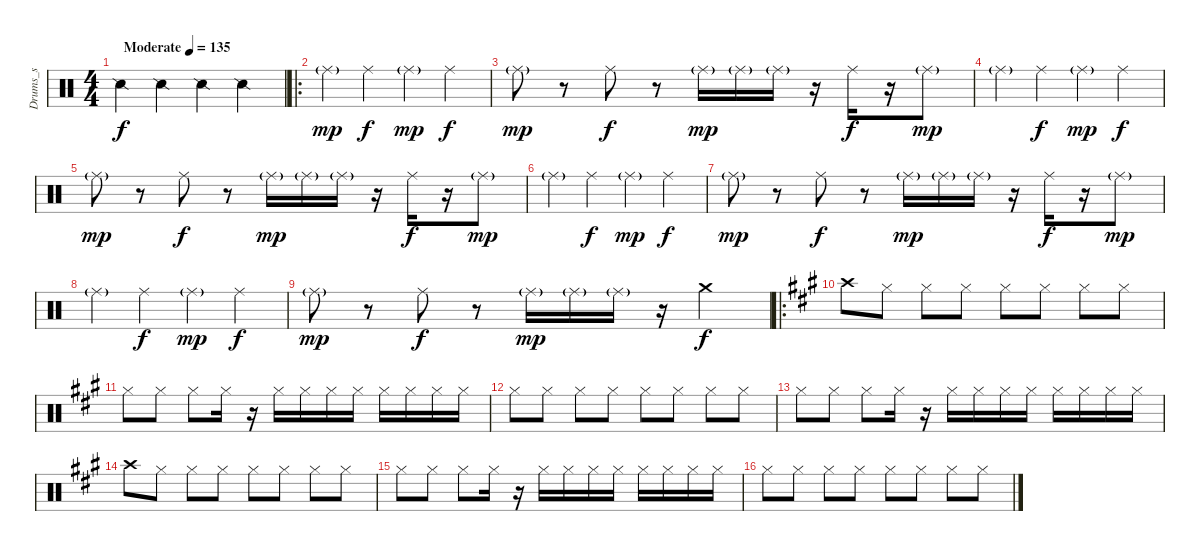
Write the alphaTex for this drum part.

\track ("Drums_s" "Drums_s") {instrument percussion}
\staff {score}
\articulation defaults
\ts (4 4)
\tempo (135 "Moderate")
\clef neutral
\ks c "Snare (side stick) 2".4{dy f} "Snare (side stick) 2".4 "Snare (side stick) 2".4 "Snare (side stick) 2".4
|
\ro "Ride (middle)"{g}.4{dy mp} "Ride (middle)".4{dy f} "Ride (middle)"{g}.4{dy mp} "Ride (middle)".4{dy f}
|
"Ride (middle)"{g}.8{dy mp} r.8 "Ride (middle)".8{dy f} r.8 "Ride (middle)"{g}.16{dy mp} "Ride (middle)"{g}.16 "Ride (middle)"{g}.16 r.16 "Ride (middle)".16{dy f} r.16 "Ride (middle)"{g}.8{dy mp} |
"Ride (middle)"{g}.4 "Ride (middle)".4{dy f} "Ride (middle)"{g}.4{dy mp} "Ride (middle)".4{dy f} |
"Ride (middle)"{g}.8{dy mp} r.8 "Ride (middle)".8{dy f} r.8 "Ride (middle)"{g}.16{dy mp} "Ride (middle)"{g}.16 "Ride (middle)"{g}.16 r.16 "Ride (middle)".16{dy f} r.16 "Ride (middle)"{g}.8{dy mp} |
"Ride (middle)"{g}.4 "Ride (middle)".4{dy f} "Ride (middle)"{g}.4{dy mp} "Ride (middle)".4{dy f} |
"Ride (middle)"{g}.8{dy mp} r.8 "Ride (middle)".8{dy f} r.8 "Ride (middle)"{g}.16{dy mp} "Ride (middle)"{g}.16 "Ride (middle)"{g}.16 r.16 "Ride (middle)".16{dy f} r.16 "Ride (middle)"{g}.8{dy mp} |
"Ride (middle)"{g}.4 "Ride (middle)".4{dy f} "Ride (middle)"{g}.4{dy mp} "Ride (middle)".4{dy f} |
"Ride (middle)"{g}.8{dy mp} r.8 "Ride (middle)".8{dy f} r.8 "Ride (middle)"{g}.16{dy mp} "Ride (middle)"{g}.16 "Ride (middle)"{g}.16 r.16 "Crash medium (hit)".4{dy f} |
\ro
\ks a "Crash high (hit)".8 "Hi-Hat (closed)".8 "Hi-Hat (closed)".8 "Hi-Hat (closed)".8 "Hi-Hat (closed)".8 "Hi-Hat (closed)".8 "Hi-Hat (closed)".8 "Hi-Hat (closed)".8
|
"Hi-Hat (closed)".8 "Hi-Hat (closed)".8 "Hi-Hat (closed)".8 "Hi-Hat (closed)".16 r.16 "Hi-Hat (closed)".16 "Hi-Hat (closed)".16 "Hi-Hat (closed)".16 "Hi-Hat (closed)".16 "Hi-Hat (closed)".16 "Hi-Hat (closed)".16 "Hi-Hat (closed)".16 "Hi-Hat (closed)".16 |
"Hi-Hat (closed)".8 "Hi-Hat (closed)".8 "Hi-Hat (closed)".8 "Hi-Hat (closed)".8 "Hi-Hat (closed)".8 "Hi-Hat (closed)".8 "Hi-Hat (closed)".8 "Hi-Hat (closed)".8 |
"Hi-Hat (closed)".8 "Hi-Hat (closed)".8 "Hi-Hat (closed)".8 "Hi-Hat (closed)".16 r.16 "Hi-Hat (closed)".16 "Hi-Hat (closed)".16 "Hi-Hat (closed)".16 "Hi-Hat (closed)".16 "Hi-Hat (closed)".16 "Hi-Hat (closed)".16 "Hi-Hat (closed)".16 "Hi-Hat (closed)".16 |
"Crash high (hit)".8 "Hi-Hat (closed)".8 "Hi-Hat (closed)".8 "Hi-Hat (closed)".8 "Hi-Hat (closed)".8 "Hi-Hat (closed)".8 "Hi-Hat (closed)".8 "Hi-Hat (closed)".8 |
"Hi-Hat (closed)".8 "Hi-Hat (closed)".8 "Hi-Hat (closed)".8 "Hi-Hat (closed)".16 r.16 "Hi-Hat (closed)".16 "Hi-Hat (closed)".16 "Hi-Hat (closed)".16 "Hi-Hat (closed)".16 "Hi-Hat (closed)".16 "Hi-Hat (closed)".16 "Hi-Hat (closed)".16 "Hi-Hat (closed)".16 |
"Hi-Hat (closed)".8 "Hi-Hat (closed)".8 "Hi-Hat (closed)".8 "Hi-Hat (closed)".8 "Hi-Hat (closed)".8 "Hi-Hat (closed)".8 "Hi-Hat (closed)".8 "Hi-Hat (closed)".8
